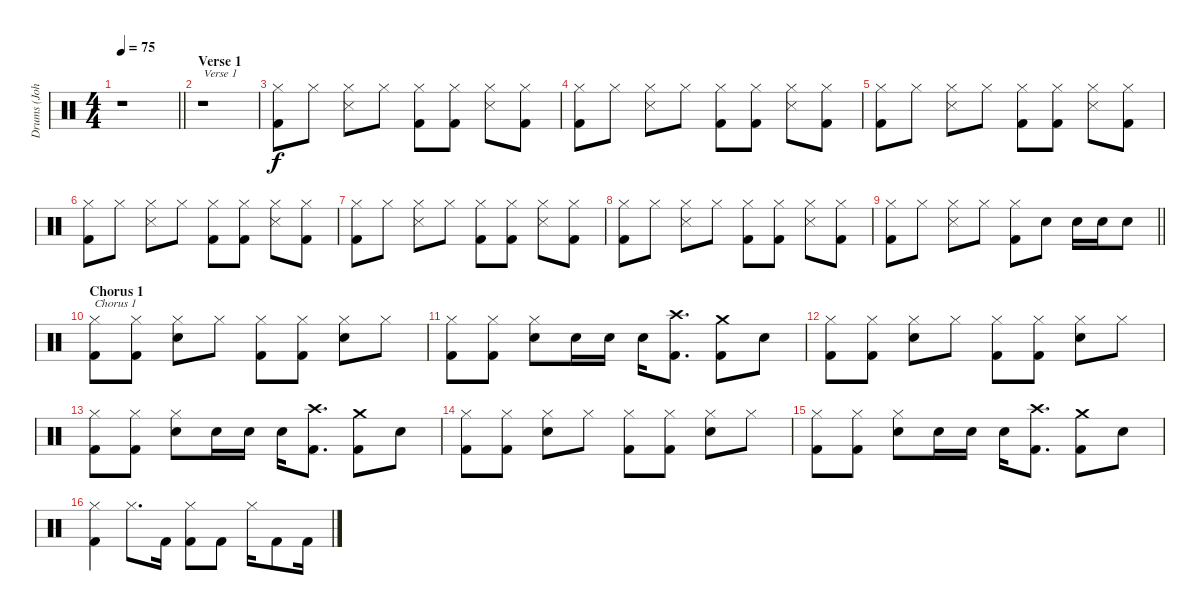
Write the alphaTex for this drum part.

\track ("Drums (John Bonham" "Drums (Joh") {instrument percussion}
\staff {score}
\articulation defaults
\ts (4 4)
\tempo 75
\clef neutral
\barLineRight lightlight
\ks c
r.1{dy f} |
\section ("" "Verse 1")
r.1{txt "Verse 1"} |
("Hi-Hat (closed)" "Kick (hit) 2").8 "Hi-Hat (closed)".8 ("Hi-Hat (closed)" "Snare (side stick) 3").8 "Hi-Hat (closed)".8 ("Hi-Hat (closed)" "Kick (hit) 2").8 ("Hi-Hat (closed)" "Kick (hit) 2").8 ("Hi-Hat (closed)" "Snare (side stick) 3").8 ("Hi-Hat (closed)" "Kick (hit) 2").8 |
("Hi-Hat (closed)" "Kick (hit) 2").8 "Hi-Hat (closed)".8 ("Hi-Hat (closed)" "Snare (side stick) 3").8 "Hi-Hat (closed)".8 ("Hi-Hat (closed)" "Kick (hit) 2").8 ("Hi-Hat (closed)" "Kick (hit) 2").8 ("Hi-Hat (closed)" "Snare (side stick) 3").8 ("Hi-Hat (closed)" "Kick (hit) 2").8 |
("Hi-Hat (closed)" "Kick (hit) 2").8 "Hi-Hat (closed)".8 ("Hi-Hat (closed)" "Snare (side stick) 3").8 "Hi-Hat (closed)".8 ("Hi-Hat (closed)" "Kick (hit) 2").8 ("Hi-Hat (closed)" "Kick (hit) 2").8 ("Hi-Hat (closed)" "Snare (side stick) 3").8 ("Hi-Hat (closed)" "Kick (hit) 2").8 |
("Hi-Hat (closed)" "Kick (hit) 2").8 "Hi-Hat (closed)".8 ("Hi-Hat (closed)" "Snare (side stick) 3").8 "Hi-Hat (closed)".8 ("Hi-Hat (closed)" "Kick (hit) 2").8 ("Hi-Hat (closed)" "Kick (hit) 2").8 ("Hi-Hat (closed)" "Snare (side stick) 3").8 ("Hi-Hat (closed)" "Kick (hit) 2").8 |
("Hi-Hat (closed)" "Kick (hit) 2").8 "Hi-Hat (closed)".8 ("Hi-Hat (closed)" "Snare (side stick) 3").8 "Hi-Hat (closed)".8 ("Hi-Hat (closed)" "Kick (hit) 2").8 ("Hi-Hat (closed)" "Kick (hit) 2").8 ("Hi-Hat (closed)" "Snare (side stick) 3").8 ("Hi-Hat (closed)" "Kick (hit) 2").8 |
("Hi-Hat (closed)" "Kick (hit) 2").8 "Hi-Hat (closed)".8 ("Hi-Hat (closed)" "Snare (side stick) 3").8 "Hi-Hat (closed)".8 ("Hi-Hat (closed)" "Kick (hit) 2").8 ("Hi-Hat (closed)" "Kick (hit) 2").8 ("Hi-Hat (closed)" "Snare (side stick) 3").8 ("Hi-Hat (closed)" "Kick (hit) 2").8 |
\barLineRight lightlight
("Hi-Hat (closed)" "Kick (hit) 2").8 "Hi-Hat (closed)".8 ("Hi-Hat (closed)" "Snare (side stick) 3").8 "Hi-Hat (closed)".8 ("Hi-Hat (closed)" "Kick (hit) 2").8 "Snare (hit) 2".8 "Snare (hit) 2".16 "Snare (hit) 2".16 "Snare (hit) 2".8 |
\section ("" "Chorus 1")
("Hi-Hat (closed)" "Kick (hit) 2").8{txt "Chorus 1"} ("Hi-Hat (closed)" "Kick (hit) 2").8 ("Hi-Hat (closed)" "Snare (hit) 2").8 "Hi-Hat (closed)".8 ("Hi-Hat (closed)" "Kick (hit) 2").8 ("Hi-Hat (closed)" "Kick (hit) 2").8 ("Hi-Hat (closed)" "Snare (hit) 2").8 "Hi-Hat (closed)".8 |
("Hi-Hat (closed)" "Kick (hit) 2").8 ("Hi-Hat (closed)" "Kick (hit) 2").8 ("Hi-Hat (closed)" "Snare (hit) 2").8 "Snare (hit) 2".16 "Snare (hit) 2".16 "Snare (hit) 2".16 ("Crash high (hit)" "Kick (hit) 2").8{d} ("Crash medium (hit)" "Kick (hit) 2").8 "Snare (hit) 2".8 |
("Hi-Hat (closed)" "Kick (hit) 2").8 ("Hi-Hat (closed)" "Kick (hit) 2").8 ("Hi-Hat (closed)" "Snare (hit) 2").8 "Hi-Hat (closed)".8 ("Hi-Hat (closed)" "Kick (hit) 2").8 ("Hi-Hat (closed)" "Kick (hit) 2").8 ("Hi-Hat (closed)" "Snare (hit) 2").8 "Hi-Hat (closed)".8 |
("Hi-Hat (closed)" "Kick (hit) 2").8 ("Hi-Hat (closed)" "Kick (hit) 2").8 ("Hi-Hat (closed)" "Snare (hit) 2").8 "Snare (hit) 2".16 "Snare (hit) 2".16 "Snare (hit) 2".16 ("Crash high (hit)" "Kick (hit) 2").8{d} ("Crash medium (hit)" "Kick (hit) 2").8 "Snare (hit) 2".8 |
("Hi-Hat (closed)" "Kick (hit) 2").8 ("Hi-Hat (closed)" "Kick (hit) 2").8 ("Hi-Hat (closed)" "Snare (hit) 2").8 "Hi-Hat (closed)".8 ("Hi-Hat (closed)" "Kick (hit) 2").8 ("Hi-Hat (closed)" "Kick (hit) 2").8 ("Hi-Hat (closed)" "Snare (hit) 2").8 "Hi-Hat (closed)".8 |
("Hi-Hat (closed)" "Kick (hit) 2").8 ("Hi-Hat (closed)" "Kick (hit) 2").8 ("Hi-Hat (closed)" "Snare (hit) 2").8 "Snare (hit) 2".16 "Snare (hit) 2".16 "Snare (hit) 2".16 ("Crash high (hit)" "Kick (hit) 2").8{d} ("Crash medium (hit)" "Kick (hit) 2").8 "Snare (hit) 2".8 |
("Hi-Hat (closed)" "Kick (hit) 2").4 "Hi-Hat (closed)".8{d} "Kick (hit) 2".16 ("Hi-Hat (closed)" "Kick (hit) 2").8 "Kick (hit) 2".8 "Hi-Hat (closed)".16 "Kick (hit) 2".8 "Kick (hit) 2".16
